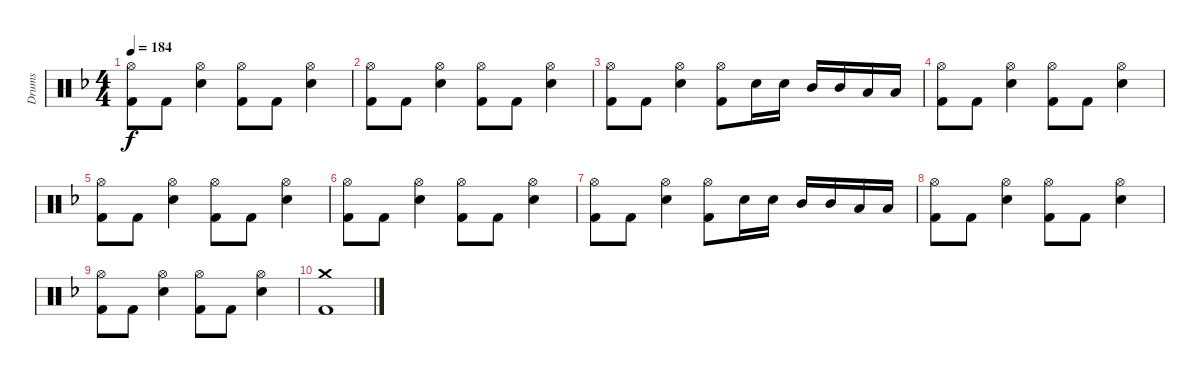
\track ("Drums" "Drums") {instrument percussion}
\staff {score}
\articulation defaults
\ts (4 4)
\tempo 184
\clef neutral
\ks f
("Hi-Hat (open)" "Kick (hit) 2").8{dy f} "Kick (hit) 2".8 ("Hi-Hat (open)" "Electric Snare (hit)").4 ("Hi-Hat (open)" "Kick (hit) 2").8 "Kick (hit) 2".8 ("Hi-Hat (open)" "Electric Snare (hit)").4 |
("Hi-Hat (open)" "Kick (hit) 2").8 "Kick (hit) 2".8 ("Hi-Hat (open)" "Electric Snare (hit)").4 ("Hi-Hat (open)" "Kick (hit) 2").8 "Kick (hit) 2".8 ("Hi-Hat (open)" "Electric Snare (hit)").4 |
("Hi-Hat (open)" "Kick (hit) 2").8 "Kick (hit) 2".8 ("Hi-Hat (open)" "Electric Snare (hit)").4 ("Hi-Hat (open)" "Kick (hit) 2").8 "Electric Snare (hit)".16 "Electric Snare (hit)".16 "Mid Tom (hit)".16 "Mid Tom (hit)".16 "Low Tom (hit)".16 "Low Tom (hit)".16 |
("Hi-Hat (open)" "Kick (hit) 2").8 "Kick (hit) 2".8 ("Hi-Hat (open)" "Electric Snare (hit)").4 ("Hi-Hat (open)" "Kick (hit) 2").8 "Kick (hit) 2".8 ("Hi-Hat (open)" "Electric Snare (hit)").4 |
("Hi-Hat (open)" "Kick (hit) 2").8 "Kick (hit) 2".8 ("Hi-Hat (open)" "Electric Snare (hit)").4 ("Hi-Hat (open)" "Kick (hit) 2").8 "Kick (hit) 2".8 ("Hi-Hat (open)" "Electric Snare (hit)").4 |
("Hi-Hat (open)" "Kick (hit) 2").8 "Kick (hit) 2".8 ("Hi-Hat (open)" "Electric Snare (hit)").4 ("Hi-Hat (open)" "Kick (hit) 2").8 "Kick (hit) 2".8 ("Hi-Hat (open)" "Electric Snare (hit)").4 |
("Hi-Hat (open)" "Kick (hit) 2").8 "Kick (hit) 2".8 ("Hi-Hat (open)" "Electric Snare (hit)").4 ("Hi-Hat (open)" "Kick (hit) 2").8 "Electric Snare (hit)".16 "Electric Snare (hit)".16 "Mid Tom (hit)".16 "Mid Tom (hit)".16 "Low Tom (hit)".16 "Low Tom (hit)".16 |
("Hi-Hat (open)" "Kick (hit) 2").8 "Kick (hit) 2".8 ("Hi-Hat (open)" "Electric Snare (hit)").4 ("Hi-Hat (open)" "Kick (hit) 2").8 "Kick (hit) 2".8 ("Hi-Hat (open)" "Electric Snare (hit)").4 |
("Hi-Hat (open)" "Kick (hit) 2").8 "Kick (hit) 2".8 ("Hi-Hat (open)" "Electric Snare (hit)").4 ("Hi-Hat (open)" "Kick (hit) 2").8 "Kick (hit) 2".8 ("Hi-Hat (open)" "Electric Snare (hit)").4 |
("Crash medium (hit)" "Kick (hit) 2").1
